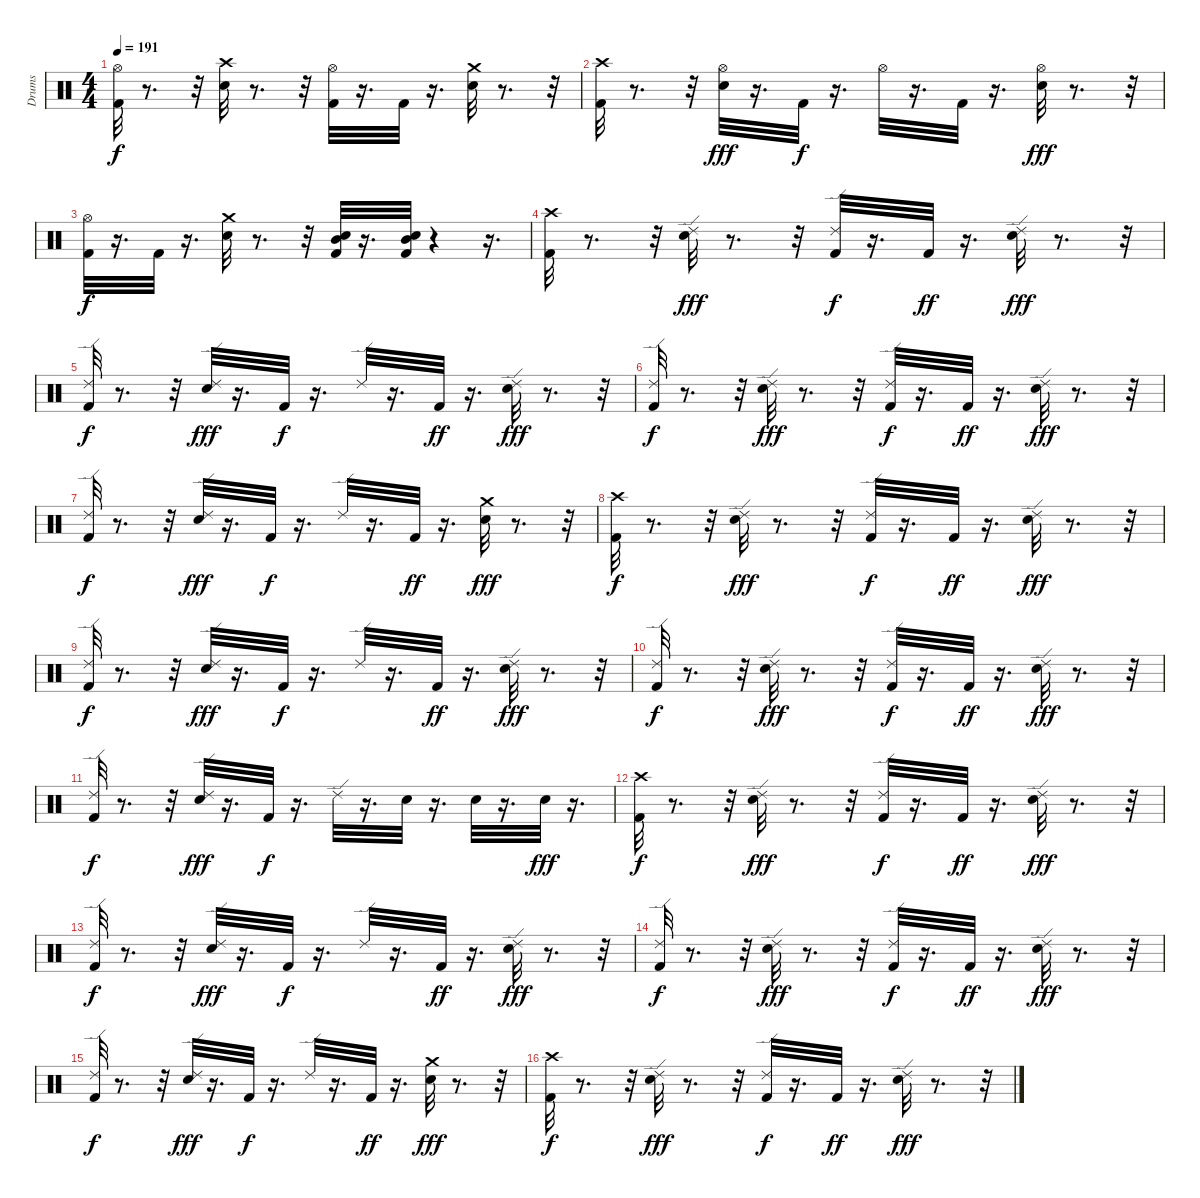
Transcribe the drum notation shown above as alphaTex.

\track ("Drums" "Drums") {instrument percussion}
\staff {score}
\articulation defaults
\ts (4 4)
\tempo 191
\clef neutral
\ks c
("Hi-Hat (open)" "Kick (hit) 2").32{dy f} r.8{d} r.32 ("Crash high (hit)" "Snare (hit) 2").32 r.8{d} r.32 ("Hi-Hat (open)" "Kick (hit) 2").32 r.16{d} "Kick (hit) 2".32 r.16{d} ("Crash medium (hit)" "Snare (hit) 2").32 r.8{d} r.32 |
("Kick (hit) 2" "Crash high (hit)").32 r.8{d} r.32 ("Hi-Hat (open)" "Snare (hit) 2").32{dy fff} r.16{d} "Kick (hit) 2".32{dy f} r.16{d} "Hi-Hat (open)".32 r.16{d} "Kick (hit) 2".32 r.16{d} ("Hi-Hat (open)" "Snare (hit) 2").32{dy fff} r.8{d} r.32 |
("Hi-Hat (open)" "Kick (hit) 2").32{dy f} r.16{d} "Kick (hit) 2".32 r.16{d} ("Crash medium (hit)" "Snare (hit) 2").32 r.8{d} r.32 ("Kick (hit) 2" "Mid Tom (hit)" "Snare (hit) 2").32 r.16{d} ("Kick (hit) 2" "Snare (hit) 2" "Mid Tom (hit)").32 r.4 r.16{d} |
("Crash high (hit)" "Kick (hit) 2").32 r.8{d} r.32 ("Snare (hit) 2" "Ride (edge) 2").32{dy fff} r.8{d} r.32 ("Kick (hit) 2" "Ride (edge) 2").32{dy f} r.16{d} "Kick (hit) 2".32{dy ff} r.16{d} ("Snare (hit) 2" "Ride (edge) 2").32{dy fff} r.8{d} r.32 |
("Kick (hit) 2" "Ride (edge) 2").32{dy f} r.8{d} r.32 ("Snare (hit) 2" "Ride (edge) 2").32{dy fff} r.16{d} "Kick (hit) 2".32{dy f} r.16{d} "Ride (edge) 2".32 r.16{d} "Kick (hit) 2".32{dy ff} r.16{d} ("Snare (hit) 2" "Ride (edge) 2").32{dy fff} r.8{d} r.32 |
("Kick (hit) 2" "Ride (edge) 2").32{dy f} r.8{d} r.32 ("Snare (hit) 2" "Ride (edge) 2").32{dy fff} r.8{d} r.32 ("Kick (hit) 2" "Ride (edge) 2").32{dy f} r.16{d} "Kick (hit) 2".32{dy ff} r.16{d} ("Snare (hit) 2" "Ride (edge) 2").32{dy fff} r.8{d} r.32 |
("Kick (hit) 2" "Ride (edge) 2").32{dy f} r.8{d} r.32 ("Snare (hit) 2" "Ride (edge) 2").32{dy fff} r.16{d} "Kick (hit) 2".32{dy f} r.16{d} "Ride (edge) 2".32 r.16{d} "Kick (hit) 2".32{dy ff} r.16{d} ("Snare (hit) 2" "Crash medium (hit)").32{dy fff} r.8{d} r.32 |
("Crash high (hit)" "Kick (hit) 2").32{dy f} r.8{d} r.32 ("Snare (hit) 2" "Ride (edge) 2").32{dy fff} r.8{d} r.32 ("Kick (hit) 2" "Ride (edge) 2").32{dy f} r.16{d} "Kick (hit) 2".32{dy ff} r.16{d} ("Snare (hit) 2" "Ride (edge) 2").32{dy fff} r.8{d} r.32 |
("Kick (hit) 2" "Ride (edge) 2").32{dy f} r.8{d} r.32 ("Snare (hit) 2" "Ride (edge) 2").32{dy fff} r.16{d} "Kick (hit) 2".32{dy f} r.16{d} "Ride (edge) 2".32 r.16{d} "Kick (hit) 2".32{dy ff} r.16{d} ("Snare (hit) 2" "Ride (edge) 2").32{dy fff} r.8{d} r.32 |
("Kick (hit) 2" "Ride (edge) 2").32{dy f} r.8{d} r.32 ("Snare (hit) 2" "Ride (edge) 2").32{dy fff} r.8{d} r.32 ("Kick (hit) 2" "Ride (edge) 2").32{dy f} r.16{d} "Kick (hit) 2".32{dy ff} r.16{d} ("Snare (hit) 2" "Ride (edge) 2").32{dy fff} r.8{d} r.32 |
("Kick (hit) 2" "Ride (edge) 2").32{dy f} r.8{d} r.32 ("Snare (hit) 2" "Ride (edge) 2").32{dy fff} r.16{d} "Kick (hit) 2".32{dy f} r.16{d} "Ride (edge) 2".32 r.16{d} "Snare (hit) 2".32 r.16{d} "Snare (hit) 2".32 r.16{d} "Snare (hit) 2".32{dy fff} r.16{d} |
("Crash high (hit)" "Kick (hit) 2").32{dy f} r.8{d} r.32 ("Snare (hit) 2" "Ride (edge) 2").32{dy fff} r.8{d} r.32 ("Kick (hit) 2" "Ride (edge) 2").32{dy f} r.16{d} "Kick (hit) 2".32{dy ff} r.16{d} ("Snare (hit) 2" "Ride (edge) 2").32{dy fff} r.8{d} r.32 |
("Kick (hit) 2" "Ride (edge) 2").32{dy f} r.8{d} r.32 ("Snare (hit) 2" "Ride (edge) 2").32{dy fff} r.16{d} "Kick (hit) 2".32{dy f} r.16{d} "Ride (edge) 2".32 r.16{d} "Kick (hit) 2".32{dy ff} r.16{d} ("Snare (hit) 2" "Ride (edge) 2").32{dy fff} r.8{d} r.32 |
("Kick (hit) 2" "Ride (edge) 2").32{dy f} r.8{d} r.32 ("Snare (hit) 2" "Ride (edge) 2").32{dy fff} r.8{d} r.32 ("Kick (hit) 2" "Ride (edge) 2").32{dy f} r.16{d} "Kick (hit) 2".32{dy ff} r.16{d} ("Snare (hit) 2" "Ride (edge) 2").32{dy fff} r.8{d} r.32 |
("Kick (hit) 2" "Ride (edge) 2").32{dy f} r.8{d} r.32 ("Snare (hit) 2" "Ride (edge) 2").32{dy fff} r.16{d} "Kick (hit) 2".32{dy f} r.16{d} "Ride (edge) 2".32 r.16{d} "Kick (hit) 2".32{dy ff} r.16{d} ("Snare (hit) 2" "Crash medium (hit)").32{dy fff} r.8{d} r.32 |
("Crash high (hit)" "Kick (hit) 2").32{dy f} r.8{d} r.32 ("Snare (hit) 2" "Ride (edge) 2").32{dy fff} r.8{d} r.32 ("Kick (hit) 2" "Ride (edge) 2").32{dy f} r.16{d} "Kick (hit) 2".32{dy ff} r.16{d} ("Snare (hit) 2" "Ride (edge) 2").32{dy fff} r.8{d} r.32
